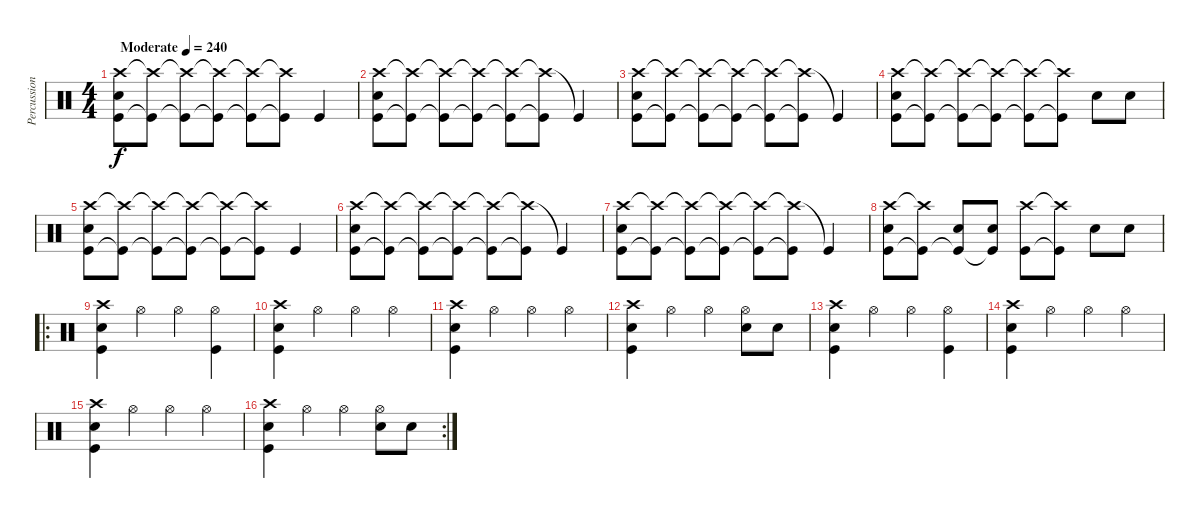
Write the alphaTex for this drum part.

\track ("Percussion" "Percussion") {instrument percussion}
\staff {score}
\articulation defaults
\ts (4 4)
\tempo (240 "Moderate")
\clef neutral
\ks c
("Crash high (hit)" "Kick (hit)" "Snare (hit) 2").8{dy f} ("Crash high (hit)"{t} "Kick (hit)"{t}).8 ("Crash high (hit)"{t} "Kick (hit)"{t}).8 ("Crash high (hit)"{t} "Kick (hit)"{t}).8 ("Crash high (hit)"{t} "Kick (hit)"{t}).8 ("Crash high (hit)"{t} "Kick (hit)"{t}).8 "Kick (hit)".4 |
("Crash high (hit)" "Kick (hit)" "Snare (hit) 2").8 ("Crash high (hit)"{t} "Kick (hit)"{t}).8 ("Crash high (hit)"{t} "Kick (hit)"{t}).8 ("Crash high (hit)"{t} "Kick (hit)"{t}).8 ("Crash high (hit)"{t} "Kick (hit)"{t}).8 ("Crash high (hit)"{t} "Kick (hit)"{t}).8 "Kick (hit)"{t}.4 |
("Crash high (hit)" "Kick (hit)" "Snare (hit) 2").8 ("Crash high (hit)"{t} "Kick (hit)"{t}).8 ("Crash high (hit)"{t} "Kick (hit)"{t}).8 ("Crash high (hit)"{t} "Kick (hit)"{t}).8 ("Crash high (hit)"{t} "Kick (hit)"{t}).8 ("Crash high (hit)"{t} "Kick (hit)"{t}).8 "Kick (hit)"{t}.4 |
("Crash high (hit)" "Kick (hit)" "Snare (hit) 2").8 ("Crash high (hit)"{t} "Kick (hit)"{t}).8 ("Crash high (hit)"{t} "Kick (hit)"{t}).8 ("Crash high (hit)"{t} "Kick (hit)"{t}).8 ("Crash high (hit)"{t} "Kick (hit)"{t}).8 ("Crash high (hit)"{t} "Kick (hit)"{t}).8 "Snare (hit) 2".8 "Snare (hit) 2".8 |
("Crash high (hit)" "Kick (hit)" "Snare (hit) 2").8 ("Crash high (hit)"{t} "Kick (hit)"{t}).8 ("Crash high (hit)"{t} "Kick (hit)"{t}).8 ("Crash high (hit)"{t} "Kick (hit)"{t}).8 ("Crash high (hit)"{t} "Kick (hit)"{t}).8 ("Crash high (hit)"{t} "Kick (hit)"{t}).8 "Kick (hit)".4 |
("Crash high (hit)" "Kick (hit)" "Snare (hit) 2").8 ("Crash high (hit)"{t} "Kick (hit)"{t}).8 ("Crash high (hit)"{t} "Kick (hit)"{t}).8 ("Crash high (hit)"{t} "Kick (hit)"{t}).8 ("Crash high (hit)"{t} "Kick (hit)"{t}).8 ("Crash high (hit)"{t} "Kick (hit)"{t}).8 "Kick (hit)"{t}.4 |
("Crash high (hit)" "Kick (hit)" "Snare (hit) 2").8 ("Crash high (hit)"{t} "Kick (hit)"{t}).8 ("Crash high (hit)"{t} "Kick (hit)"{t}).8 ("Crash high (hit)"{t} "Kick (hit)"{t}).8 ("Crash high (hit)"{t} "Kick (hit)"{t}).8 ("Crash high (hit)"{t} "Kick (hit)"{t}).8 "Kick (hit)"{t}.4 |
("Crash high (hit)" "Kick (hit)" "Snare (hit) 2").8 ("Crash high (hit)"{t} "Kick (hit)"{t}).8 ("Snare (hit) 2" "Kick (hit)"{t}).8 ("Snare (hit) 2" "Kick (hit)"{t}).8 ("Crash high (hit)" "Kick (hit)").8 ("Crash high (hit)"{t} "Kick (hit)"{t}).8 "Snare (hit) 2".8 "Snare (hit) 2".8 |
\ro
("Crash high (hit)" "Kick (hit)" "Snare (hit) 2").4 "Hi-Hat (open)".4 "Hi-Hat (open)".4 ("Kick (hit)" "Hi-Hat (open)").4 |
("Crash high (hit)" "Kick (hit)" "Snare (hit) 2").4 "Hi-Hat (open)".4 "Hi-Hat (open)".4 "Hi-Hat (open)".4 |
("Crash high (hit)" "Kick (hit)" "Snare (hit) 2").4 "Hi-Hat (open)".4 "Hi-Hat (open)".4 "Hi-Hat (open)".4 |
("Crash high (hit)" "Kick (hit)" "Snare (hit) 2").4 "Hi-Hat (open)".4 "Hi-Hat (open)".4 ("Hi-Hat (open)" "Snare (hit) 2").8 "Snare (hit) 2".8 |
("Crash high (hit)" "Kick (hit)" "Snare (hit) 2").4 "Hi-Hat (open)".4 "Hi-Hat (open)".4 ("Kick (hit)" "Hi-Hat (open)").4 |
("Crash high (hit)" "Kick (hit)" "Snare (hit) 2").4 "Hi-Hat (open)".4 "Hi-Hat (open)".4 "Hi-Hat (open)".4 |
("Crash high (hit)" "Kick (hit)" "Snare (hit) 2").4 "Hi-Hat (open)".4 "Hi-Hat (open)".4 "Hi-Hat (open)".4 |
\rc 2
("Crash high (hit)" "Kick (hit)" "Snare (hit) 2").4 "Hi-Hat (open)".4 "Hi-Hat (open)".4 ("Hi-Hat (open)" "Snare (hit) 2").8 "Snare (hit) 2".8
